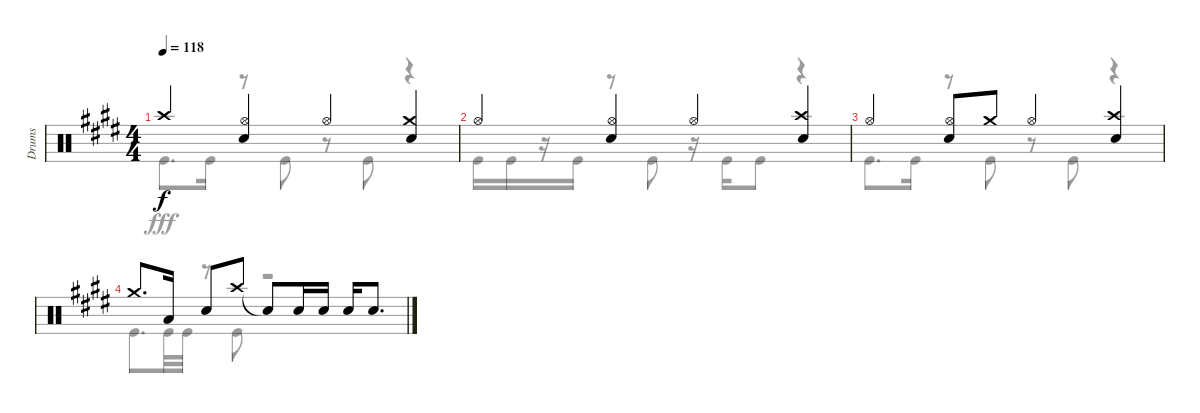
\track ("Drums" "Drums") {instrument percussion}
\staff {score}
\articulation defaults
\voice
\ts (4 4)
\tempo 118
\clef neutral
\ks e "Crash high (hit)".4{dy f}
("Hi-Hat (open)" "Snare (hit) 2").4 "Hi-Hat (open)".4 ("Crash medium (hit)" "Snare (hit) 2").4 |
"Hi-Hat (open)".4 ("Hi-Hat (open)" "Snare (hit) 2").4 "Hi-Hat (open)".4 ("Crash high (hit)" "Snare (hit) 2").4 |
"Hi-Hat (open)".4 ("Hi-Hat (open)" "Snare (hit) 2").8 "Crash medium (hit)".8 "Hi-Hat (open)".4 ("Crash high (hit)" "Snare (hit) 2").4 |
"Crash medium (hit)".8{d} "Low Tom (hit)".16 "Snare (hit) 2".8 "Crash high (hit)".8 "Snare (hit)"{t}.8 "Snare (hit) 2".16 "Snare (hit) 2".16 "Snare (hit) 2".16 "Snare (hit) 2".8{d}
\voice
\clef neutral
\ottava regular
\simile none
\ks e "Kick (hit)".8{d dy fff} "Kick (hit)".16
r.8 "Kick (hit)".8 r.8 "Kick (hit)".8 r.4 |
"Kick (hit)".16 "Kick (hit)".16 r.16 "Kick (hit)".16 r.8 "Kick (hit)".8 r.16 "Kick (hit)".16 "Kick (hit)".8 r.4 |
"Kick (hit)".8{d} "Kick (hit)".16 r.8 "Kick (hit)".8 r.8 "Kick (hit)".8 r.4 |
"Kick (hit)".8{d} "Kick (hit)".32 "Kick (hit)".32 r.8 "Kick (hit)".8 r.2
